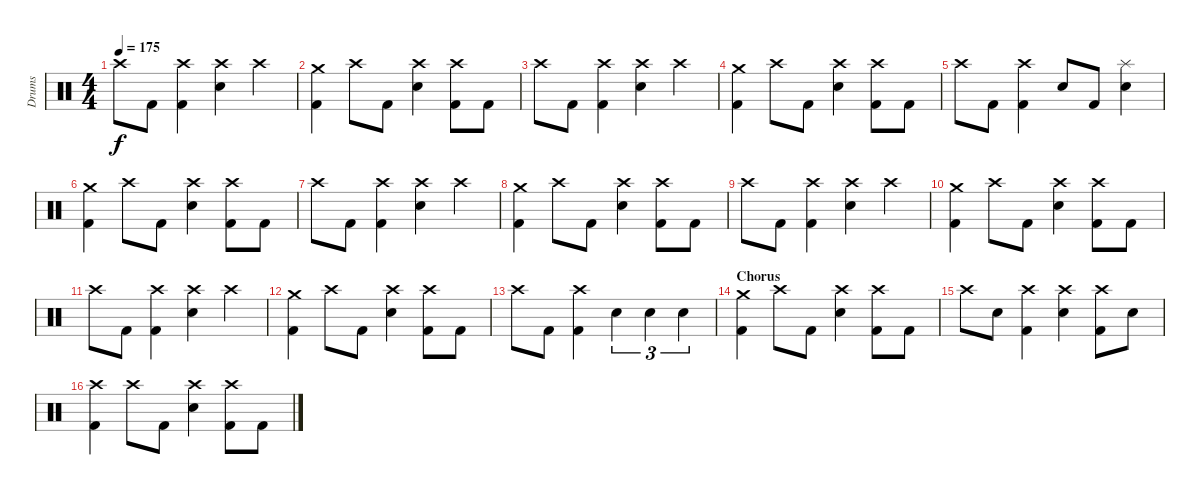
\track ("Drums" "Drums") {instrument percussion}
\staff {score}
\articulation defaults
\ts (4 4)
\tempo 175
\clef neutral
\ks c "Crash high (hit)".8{dy f} "Kick (hit) 2".8
("Crash high (hit)" "Kick (hit) 2").4 ("Crash high (hit)" "Electric Snare (hit)").4 "Crash high (hit)".4 |
("Crash medium (hit)" "Kick (hit) 2").4 "Crash high (hit)".8 "Kick (hit) 2".8 ("Crash high (hit)" "Electric Snare (hit)").4 ("Crash high (hit)" "Kick (hit) 2").8 "Kick (hit) 2".8 |
"Crash high (hit)".8 "Kick (hit) 2".8 ("Crash high (hit)" "Kick (hit) 2").4 ("Crash high (hit)" "Electric Snare (hit)").4 "Crash high (hit)".4 |
("Crash medium (hit)" "Kick (hit) 2").4 "Crash high (hit)".8 "Kick (hit) 2".8 ("Crash high (hit)" "Electric Snare (hit)").4 ("Crash high (hit)" "Kick (hit) 2").8 "Kick (hit) 2".8 |
"Crash high (hit)".8 "Kick (hit) 2".8 ("Crash high (hit)" "Kick (hit) 2").4 "Electric Snare (hit)".8 "Kick (hit) 2".8 ("Splash (hit)" "Electric Snare (hit)").4 |
("Crash medium (hit)" "Kick (hit) 2").4 "Crash high (hit)".8 "Kick (hit) 2".8 ("Crash high (hit)" "Electric Snare (hit)").4 ("Crash high (hit)" "Kick (hit) 2").8 "Kick (hit) 2".8 |
"Crash high (hit)".8 "Kick (hit) 2".8 ("Crash high (hit)" "Kick (hit) 2").4 ("Crash high (hit)" "Electric Snare (hit)").4 "Crash high (hit)".4 |
("Crash medium (hit)" "Kick (hit) 2").4 "Crash high (hit)".8 "Kick (hit) 2".8 ("Crash high (hit)" "Electric Snare (hit)").4 ("Crash high (hit)" "Kick (hit) 2").8 "Kick (hit) 2".8 |
"Crash high (hit)".8 "Kick (hit) 2".8 ("Crash high (hit)" "Kick (hit) 2").4 ("Crash high (hit)" "Electric Snare (hit)").4 "Crash high (hit)".4 |
("Crash medium (hit)" "Kick (hit) 2").4 "Crash high (hit)".8 "Kick (hit) 2".8 ("Crash high (hit)" "Electric Snare (hit)").4 ("Crash high (hit)" "Kick (hit) 2").8 "Kick (hit) 2".8 |
"Crash high (hit)".8 "Kick (hit) 2".8 ("Crash high (hit)" "Kick (hit) 2").4 ("Crash high (hit)" "Electric Snare (hit)").4 "Crash high (hit)".4 |
("Crash medium (hit)" "Kick (hit) 2").4 "Crash high (hit)".8 "Kick (hit) 2".8 ("Crash high (hit)" "Electric Snare (hit)").4 ("Crash high (hit)" "Kick (hit) 2").8 "Kick (hit) 2".8 |
"Crash high (hit)".8 "Kick (hit) 2".8 ("Crash high (hit)" "Kick (hit) 2").4 "Electric Snare (hit)".4{tu (3 2)} "Electric Snare (hit)".4{tu (3 2)} "Electric Snare (hit)".4{tu (3 2)} |
\section ("" "Chorus")
("Crash medium (hit)" "Kick (hit) 2").4 "Crash high (hit)".8 "Kick (hit) 2".8 ("Crash high (hit)" "Electric Snare (hit)").4 ("Crash high (hit)" "Kick (hit) 2").8 "Kick (hit) 2".8 |
"Crash high (hit)".8 "Electric Snare (hit)".8 ("Crash high (hit)" "Kick (hit) 2").4 ("Crash high (hit)" "Electric Snare (hit)").4 ("Crash high (hit)" "Kick (hit) 2").8 "Electric Snare (hit)".8 |
("Crash high (hit)" "Kick (hit) 2").4 "Crash high (hit)".8 "Kick (hit) 2".8 ("Crash high (hit)" "Electric Snare (hit)").4 ("Crash high (hit)" "Kick (hit) 2").8 "Kick (hit) 2".8
